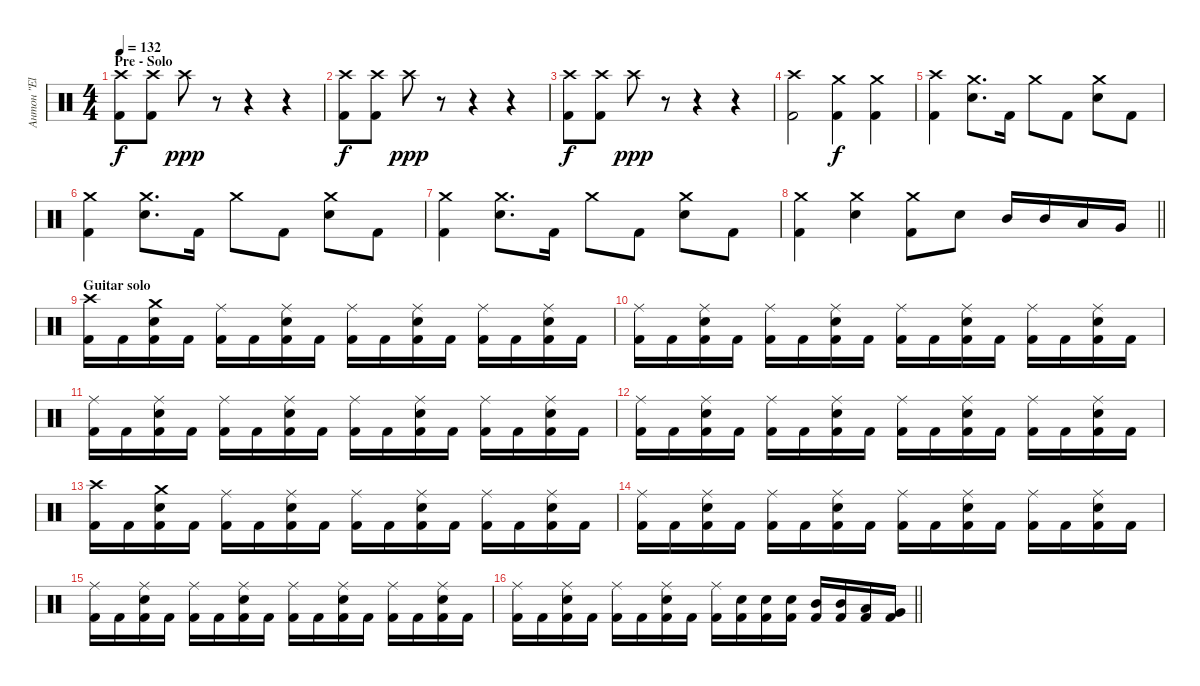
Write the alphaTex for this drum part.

\track ("Антон \"El Bastardo\" Смольянин" "Антон \"El ") {instrument percussion}
\staff {score}
\articulation defaults
\ts (4 4)
\section ("" "Pre - Solo")
\tempo 132
\clef neutral
\ks c
("Crash high (hit)" "Kick (hit) 2").8{dy f} ("Crash high (hit)" "Kick (hit) 2").8 "Crash high (hit)".8{dy ppp} r.8 r.4 r.4 |
("Crash high (hit)" "Kick (hit) 2").8{dy f} ("Crash high (hit)" "Kick (hit) 2").8 "Crash high (hit)".8{dy ppp} r.8 r.4 r.4 |
("Crash high (hit)" "Kick (hit) 2").8{dy f} ("Crash high (hit)" "Kick (hit) 2").8 "Crash high (hit)".8{dy ppp} r.8 r.4 r.4 |
("Crash high (hit)" "Kick (hit) 2").2 ("Crash medium (hit)" "Kick (hit) 2").4{dy f} ("Crash medium (hit)" "Kick (hit) 2").4 |
("Crash high (hit)" "Kick (hit) 2").4 ("Crash medium (hit)" "Electric Snare (hit)").8{d} "Kick (hit) 2".16 "Crash medium (hit)".8 "Kick (hit) 2".8 ("Crash medium (hit)" "Electric Snare (hit)").8 "Kick (hit) 2".8 |
("Crash medium (hit)" "Kick (hit) 2").4 ("Crash medium (hit)" "Electric Snare (hit)").8{d} "Kick (hit) 2".16 "Crash medium (hit)".8 "Kick (hit) 2".8 ("Crash medium (hit)" "Electric Snare (hit)").8 "Kick (hit) 2".8 |
("Crash medium (hit)" "Kick (hit) 2").4 ("Crash medium (hit)" "Electric Snare (hit)").8{d} "Kick (hit) 2".16 "Crash medium (hit)".8 "Kick (hit) 2".8 ("Crash medium (hit)" "Electric Snare (hit)").8 "Kick (hit) 2".8 |
\barLineRight lightlight
("Crash medium (hit)" "Kick (hit) 2").4 ("Crash medium (hit)" "Electric Snare (hit)").4 ("Crash medium (hit)" "Kick (hit) 2").8 "Electric Snare (hit)".8 "Mid Tom (hit)".16 "Mid Tom (hit)".16 "Low Tom (hit)".16 "Very Low Tom (hit)".16 |
\section ("" "Guitar solo")
("Crash high (hit)" "Kick (hit) 2").16 "Kick (hit) 2".16 ("Crash medium (hit)" "Electric Snare (hit)" "Kick (hit) 2").16 "Kick (hit) 2".16 ("Ride (middle)" "Kick (hit) 2").16 "Kick (hit) 2".16 ("Ride (middle)" "Electric Snare (hit)" "Kick (hit) 2").16 "Kick (hit) 2".16 ("Ride (middle)" "Kick (hit) 2").16 "Kick (hit) 2".16 ("Ride (middle)" "Electric Snare (hit)" "Kick (hit) 2").16 "Kick (hit) 2".16 ("Ride (middle)" "Kick (hit) 2").16 "Kick (hit) 2".16 ("Ride (middle)" "Electric Snare (hit)" "Kick (hit) 2").16 "Kick (hit) 2".16 |
("Ride (middle)" "Kick (hit) 2").16 "Kick (hit) 2".16 ("Ride (middle)" "Electric Snare (hit)" "Kick (hit) 2").16 "Kick (hit) 2".16 ("Ride (middle)" "Kick (hit) 2").16 "Kick (hit) 2".16 ("Ride (middle)" "Electric Snare (hit)" "Kick (hit) 2").16 "Kick (hit) 2".16 ("Ride (middle)" "Kick (hit) 2").16 "Kick (hit) 2".16 ("Ride (middle)" "Electric Snare (hit)" "Kick (hit) 2").16 "Kick (hit) 2".16 ("Ride (middle)" "Kick (hit) 2").16 "Kick (hit) 2".16 ("Ride (middle)" "Electric Snare (hit)" "Kick (hit) 2").16 "Kick (hit) 2".16 |
("Ride (middle)" "Kick (hit) 2").16 "Kick (hit) 2".16 ("Ride (middle)" "Electric Snare (hit)" "Kick (hit) 2").16 "Kick (hit) 2".16 ("Ride (middle)" "Kick (hit) 2").16 "Kick (hit) 2".16 ("Ride (middle)" "Electric Snare (hit)" "Kick (hit) 2").16 "Kick (hit) 2".16 ("Ride (middle)" "Kick (hit) 2").16 "Kick (hit) 2".16 ("Ride (middle)" "Electric Snare (hit)" "Kick (hit) 2").16 "Kick (hit) 2".16 ("Ride (middle)" "Kick (hit) 2").16 "Kick (hit) 2".16 ("Ride (middle)" "Electric Snare (hit)" "Kick (hit) 2").16 "Kick (hit) 2".16 |
("Ride (middle)" "Kick (hit) 2").16 "Kick (hit) 2".16 ("Ride (middle)" "Electric Snare (hit)" "Kick (hit) 2").16 "Kick (hit) 2".16 ("Ride (middle)" "Kick (hit) 2").16 "Kick (hit) 2".16 ("Ride (middle)" "Electric Snare (hit)" "Kick (hit) 2").16 "Kick (hit) 2".16 ("Ride (middle)" "Kick (hit) 2").16 "Kick (hit) 2".16 ("Ride (middle)" "Electric Snare (hit)" "Kick (hit) 2").16 "Kick (hit) 2".16 ("Ride (middle)" "Kick (hit) 2").16 "Kick (hit) 2".16 ("Ride (middle)" "Electric Snare (hit)" "Kick (hit) 2").16 "Kick (hit) 2".16 |
("Crash high (hit)" "Kick (hit) 2").16 "Kick (hit) 2".16 ("Crash medium (hit)" "Electric Snare (hit)" "Kick (hit) 2").16 "Kick (hit) 2".16 ("Ride (middle)" "Kick (hit) 2").16 "Kick (hit) 2".16 ("Ride (middle)" "Electric Snare (hit)" "Kick (hit) 2").16 "Kick (hit) 2".16 ("Ride (middle)" "Kick (hit) 2").16 "Kick (hit) 2".16 ("Ride (middle)" "Electric Snare (hit)" "Kick (hit) 2").16 "Kick (hit) 2".16 ("Ride (middle)" "Kick (hit) 2").16 "Kick (hit) 2".16 ("Ride (middle)" "Electric Snare (hit)" "Kick (hit) 2").16 "Kick (hit) 2".16 |
("Ride (middle)" "Kick (hit) 2").16 "Kick (hit) 2".16 ("Ride (middle)" "Electric Snare (hit)" "Kick (hit) 2").16 "Kick (hit) 2".16 ("Ride (middle)" "Kick (hit) 2").16 "Kick (hit) 2".16 ("Ride (middle)" "Electric Snare (hit)" "Kick (hit) 2").16 "Kick (hit) 2".16 ("Ride (middle)" "Kick (hit) 2").16 "Kick (hit) 2".16 ("Ride (middle)" "Electric Snare (hit)" "Kick (hit) 2").16 "Kick (hit) 2".16 ("Ride (middle)" "Kick (hit) 2").16 "Kick (hit) 2".16 ("Ride (middle)" "Electric Snare (hit)" "Kick (hit) 2").16 "Kick (hit) 2".16 |
("Ride (middle)" "Kick (hit) 2").16 "Kick (hit) 2".16 ("Ride (middle)" "Electric Snare (hit)" "Kick (hit) 2").16 "Kick (hit) 2".16 ("Ride (middle)" "Kick (hit) 2").16 "Kick (hit) 2".16 ("Ride (middle)" "Electric Snare (hit)" "Kick (hit) 2").16 "Kick (hit) 2".16 ("Ride (middle)" "Kick (hit) 2").16 "Kick (hit) 2".16 ("Ride (middle)" "Electric Snare (hit)" "Kick (hit) 2").16 "Kick (hit) 2".16 ("Ride (middle)" "Kick (hit) 2").16 "Kick (hit) 2".16 ("Ride (middle)" "Electric Snare (hit)" "Kick (hit) 2").16 "Kick (hit) 2".16 |
\barLineRight lightlight
("Ride (middle)" "Kick (hit) 2").16 "Kick (hit) 2".16 ("Ride (middle)" "Electric Snare (hit)" "Kick (hit) 2").16 "Kick (hit) 2".16 ("Ride (middle)" "Kick (hit) 2").16 "Kick (hit) 2".16 ("Ride (middle)" "Electric Snare (hit)" "Kick (hit) 2").16 "Kick (hit) 2".16 ("Ride (middle)" "Kick (hit) 2").16 ("Electric Snare (hit)" "Kick (hit) 2").16 ("Electric Snare (hit)" "Kick (hit) 2").16 ("Electric Snare (hit)" "Kick (hit) 2").16 ("Mid Tom (hit)" "Kick (hit) 2").16 ("Mid Tom (hit)" "Kick (hit) 2").16 ("Low Tom (hit)" "Kick (hit) 2").16 ("Very Low Tom (hit)" "Kick (hit) 2").16
